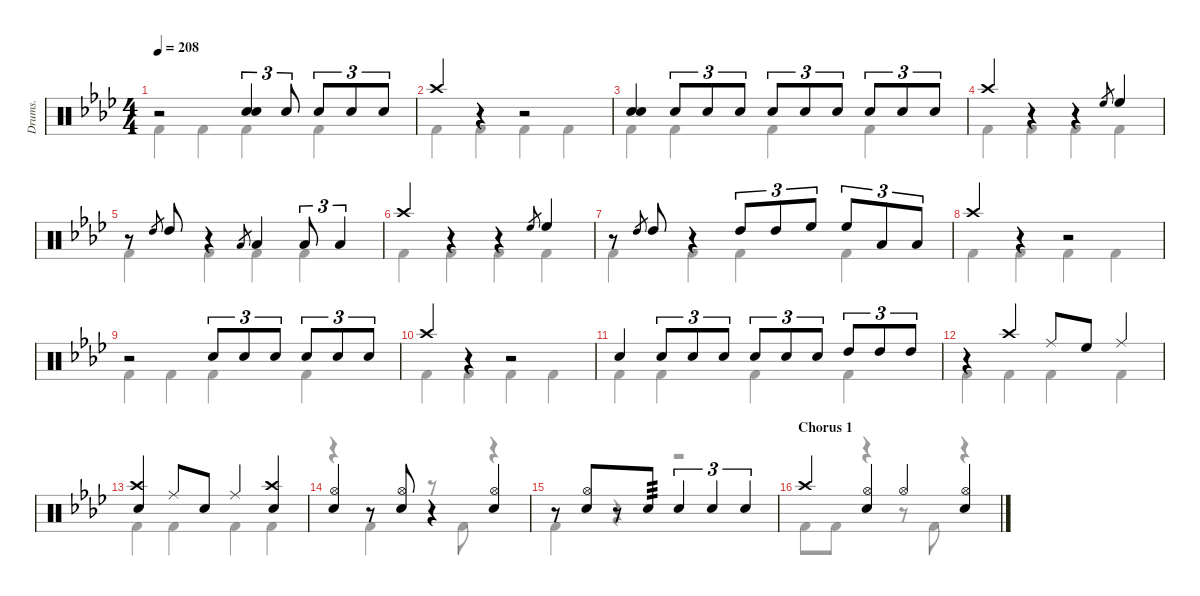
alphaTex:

\defaultSystemsLayout 4
\hideDynamics
\otherSystemsTrackNameOrientation horizontal
\track ("Drumkit" "Drums.") {defaultSystemsLayout 4 instrument percussion}
\staff {score}
\articulation defaults
\voice
\ts (4 4)
\tempo 208
\clef neutral
\ks fminor
r.2{dy mf} ("Snare (hit) 2"{acc forcenatural} "Snare (hit) 2"{acc forcenatural}).4{tu (3 2)} "Snare (hit) 2"{acc forcenatural}.8{tu (3 2)} "Snare (hit) 2"{acc forcenatural}.8{tu (3 2)} "Snare (hit) 2"{acc forcenatural}.8{tu (3 2)} "Snare (hit) 2"{acc forcenatural}.8{tu (3 2)} |
"Crash high (hit)"{acc forcenatural}.4 r.4 r.2 |
("Snare (hit) 2"{acc forcenatural} "Snare (hit) 2"{acc forcenatural}).4 "Snare (hit) 2"{acc forcenatural}.8{tu (3 2)} "Snare (hit) 2"{acc forcenatural}.8{tu (3 2)} "Snare (hit) 2"{acc forcenatural}.8{tu (3 2)} "Snare (hit) 2"{acc forcenatural}.8{tu (3 2)} "Snare (hit) 2"{acc forcenatural}.8{tu (3 2)} "Snare (hit) 2"{acc forcenatural}.8{tu (3 2)} "Snare (hit) 2"{acc forcenatural}.8{tu (3 2)} "Snare (hit) 2"{acc forcenatural}.8{tu (3 2)} "Snare (hit) 2"{acc forcenatural}.8{tu (3 2)} |
"Crash high (hit)"{acc forcenatural}.4 r.4 r.4 "High Floor Tom (hit)"{acc forcenatural}.8{gr} "High Floor Tom (hit)"{acc forcenatural}.4 |
r.8 "High Tom (hit)"{acc forcenatural}.8{gr} "High Tom (hit)"{acc forcenatural}.8 r.4 "Low Tom (hit)"{acc forcenatural}.8{gr} "Low Tom (hit)"{acc forcenatural}.4 "Low Tom (hit)"{acc forcenatural}.8{tu (3 2)} "Low Tom (hit)"{acc forcenatural}.4{tu (3 2)} |
"Crash high (hit)"{acc forcenatural}.4 r.4 r.4 "High Floor Tom (hit)"{acc forcenatural}.8{gr} "High Floor Tom (hit)"{acc forcenatural}.4 |
r.8 "High Tom (hit)"{acc forcenatural}.8{gr} "High Tom (hit)"{acc forcenatural}.8 r.4 "High Tom (hit)"{acc forcenatural}.8{tu (3 2)} "High Tom (hit)"{acc forcenatural}.8{tu (3 2)} "High Floor Tom (hit)"{acc forcenatural}.8{tu (3 2)} "High Floor Tom (hit)"{acc forcenatural}.8{tu (3 2)} "Low Tom (hit)"{acc forcenatural}.8{tu (3 2)} "Low Tom (hit)"{acc forcenatural}.8{tu (3 2)} |
"Crash high (hit)"{acc forcenatural}.4 r.4 r.2 |
r.2 "Snare (hit) 2"{acc forcenatural}.8{tu (3 2)} "Snare (hit) 2"{acc forcenatural}.8{tu (3 2)} "Snare (hit) 2"{acc forcenatural}.8{tu (3 2)} "Snare (hit) 2"{acc forcenatural}.8{tu (3 2)} "Snare (hit) 2"{acc forcenatural}.8{tu (3 2)} "Snare (hit) 2"{acc forcenatural}.8{tu (3 2)} |
"Crash high (hit)"{acc forcenatural}.4 r.4 r.2 |
"Snare (hit) 2"{acc forcenatural}.4 "Snare (hit) 2"{acc forcenatural}.8{tu (3 2)} "Snare (hit) 2"{acc forcenatural}.8{tu (3 2)} "Snare (hit) 2"{acc forcenatural}.8{tu (3 2)} "Snare (hit) 2"{acc forcenatural}.8{tu (3 2)} "Snare (hit) 2"{acc forcenatural}.8{tu (3 2)} "Snare (hit) 2"{acc forcenatural}.8{tu (3 2)} "High Tom (hit)"{acc forcenatural}.8{tu (3 2)} "High Tom (hit)"{acc forcenatural}.8{tu (3 2)} "High Tom (hit)"{acc forcenatural}.8{tu (3 2)} |
r.4 "Crash high (hit)"{acc forcenatural}.4 "Ride (middle)"{acc forcenatural}.8 "High Floor Tom (hit)"{acc forcenatural}.8 "Ride (middle)"{acc forcenatural}.4 |
("Crash high (hit)"{acc forcenatural} "Snare (hit) 2"{acc forcenatural}).4 "Ride (middle)"{acc forcenatural}.8 "Snare (hit) 2"{acc forcenatural}.8 "Ride (middle)"{acc forcenatural}.4 ("Crash high (hit)"{acc forcenatural} "Snare (hit) 2"{acc forcenatural}).4 |
("Hi-Hat (open)"{acc forcenatural} "Snare (hit) 2"{acc forcenatural}).4 r.8 ("Hi-Hat (open)"{acc forcenatural} "Snare (hit) 2"{acc forcenatural}).8 r.4 ("Hi-Hat (open)"{acc forcenatural} "Snare (hit) 2"{acc forcenatural}).4 |
r.8 ("Hi-Hat (open)"{acc forcenatural} "Snare (hit) 2"{acc forcenatural}).8{beam merge} r.8{beam merge} "Snare (hit) 2"{acc forcenatural}.8{tp 3} "Snare (hit) 2"{acc forcenatural}.4{tu (3 2)} "Snare (hit) 2"{acc forcenatural}.4{tu (3 2)} "Snare (hit) 2"{acc forcenatural}.4{tu (3 2)} |
\section ("" "Chorus 1")
"Crash high (hit)"{acc forcenatural}.4 ("Hi-Hat (open)"{acc forcenatural} "Snare (hit) 2"{acc forcenatural}).4 "Hi-Hat (open)"{acc forcenatural}.4 ("Hi-Hat (open)"{acc forcenatural} "Snare (hit) 2"{acc forcenatural}).4
\voice
\clef neutral
\ottava regular
\simile none
\ks fminor "Kick (hit) 2"{acc forcenatural}.4{dy mf} "Kick (hit) 2"{acc forcenatural}.4 "Kick (hit) 2"{acc forcenatural}.4 "Kick (hit) 2"{acc forcenatural}.4
|
"Kick (hit) 2"{acc forcenatural}.4 "Kick (hit) 2"{acc forcenatural}.4 "Kick (hit) 2"{acc forcenatural}.4 "Kick (hit) 2"{acc forcenatural}.4 |
"Kick (hit) 2"{acc forcenatural}.4 "Kick (hit) 2"{acc forcenatural}.4 "Kick (hit) 2"{acc forcenatural}.4 "Kick (hit) 2"{acc forcenatural}.4 |
"Kick (hit) 2"{acc forcenatural}.4 "Kick (hit) 2"{acc forcenatural}.4 "Kick (hit) 2"{acc forcenatural}.4 "Kick (hit) 2"{acc forcenatural}.4 |
"Kick (hit) 2"{acc forcenatural}.4 "Kick (hit) 2"{acc forcenatural}.4 "Kick (hit) 2"{acc forcenatural}.4 "Kick (hit) 2"{acc forcenatural}.4 |
"Kick (hit) 2"{acc forcenatural}.4 "Kick (hit) 2"{acc forcenatural}.4 "Kick (hit) 2"{acc forcenatural}.4 "Kick (hit) 2"{acc forcenatural}.4 |
"Kick (hit) 2"{acc forcenatural}.4 "Kick (hit) 2"{acc forcenatural}.4 "Kick (hit) 2"{acc forcenatural}.4 "Kick (hit) 2"{acc forcenatural}.4 |
"Kick (hit) 2"{acc forcenatural}.4 "Kick (hit) 2"{acc forcenatural}.4 "Kick (hit) 2"{acc forcenatural}.4 "Kick (hit) 2"{acc forcenatural}.4 |
"Kick (hit) 2"{acc forcenatural}.4 "Kick (hit) 2"{acc forcenatural}.4 "Kick (hit) 2"{acc forcenatural}.4 "Kick (hit) 2"{acc forcenatural}.4 |
"Kick (hit) 2"{acc forcenatural}.4 "Kick (hit) 2"{acc forcenatural}.4 "Kick (hit) 2"{acc forcenatural}.4 "Kick (hit) 2"{acc forcenatural}.4 |
"Kick (hit) 2"{acc forcenatural}.4 "Kick (hit) 2"{acc forcenatural}.4 "Kick (hit) 2"{acc forcenatural}.4 "Kick (hit) 2"{acc forcenatural}.4 |
"Kick (hit) 2"{acc forcenatural}.4 "Kick (hit) 2"{acc forcenatural}.4 "Kick (hit) 2"{acc forcenatural}.4 "Kick (hit) 2"{acc forcenatural}.4 |
"Kick (hit) 2"{acc forcenatural}.4 "Kick (hit) 2"{acc forcenatural}.4 "Kick (hit) 2"{acc forcenatural}.4 "Kick (hit) 2"{acc forcenatural}.4 |
r.4 "Kick (hit) 2"{acc forcenatural}.4 r.8 "Kick (hit) 2"{acc forcenatural}.8 r.4 |
"Kick (hit) 2"{acc forcenatural}.4 r.4 r.2 |
"Kick (hit) 2"{acc forcenatural}.8 "Kick (hit) 2"{acc forcenatural}.8 r.4 r.8 "Kick (hit) 2"{acc forcenatural}.8 r.4
